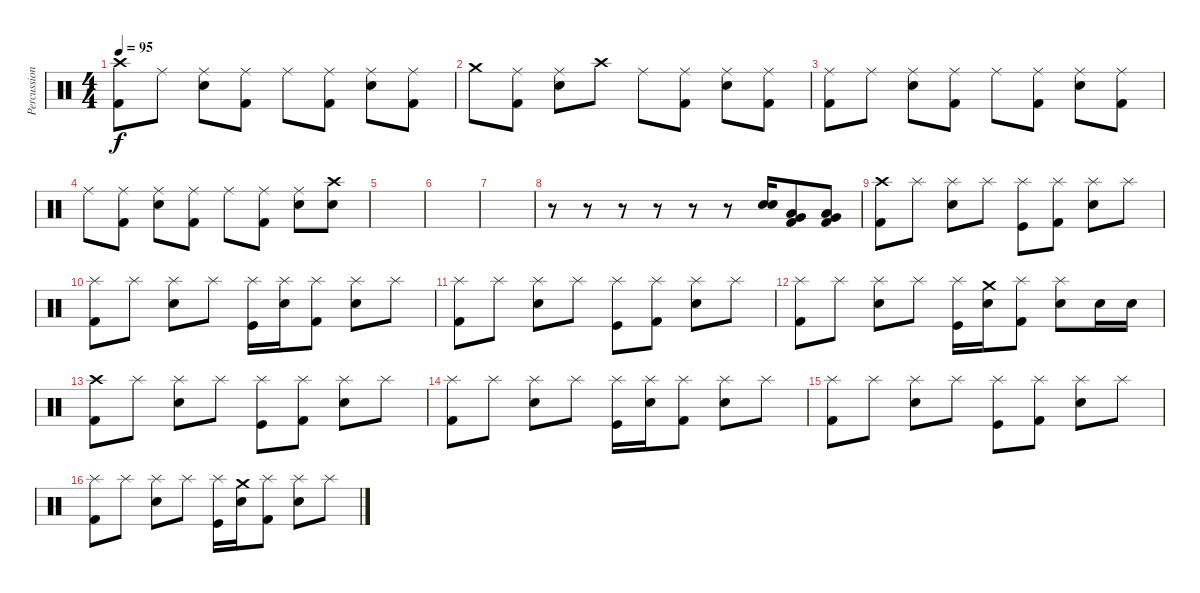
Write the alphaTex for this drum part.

\track ("Percussion" "Percussion") {instrument percussion}
\staff {score}
\articulation defaults
\ts (4 4)
\tempo 95
\clef neutral
\ks c
("Crash high (hit)" "Kick (hit) 2").8{dy f} "Ride (middle)".8 ("Ride (middle)" "Snare (hit) 2").8 ("Ride (middle)" "Kick (hit) 2").8 "Ride (middle)".8 ("Ride (middle)" "Kick (hit) 2").8 ("Ride (middle)" "Snare (hit) 2").8 ("Ride (middle)" "Kick (hit) 2").8 |
"Crash medium (hit)".8 ("Ride (middle)" "Kick (hit) 2").8 ("Ride (middle)" "Snare (hit) 2").8 "Crash high (hit)".8 "Ride (middle)".8 ("Ride (middle)" "Kick (hit) 2").8 ("Ride (middle)" "Snare (hit) 2").8 ("Ride (middle)" "Kick (hit) 2").8 |
("Ride (middle)" "Kick (hit) 2").8 "Ride (middle)".8 ("Ride (middle)" "Snare (hit) 2").8 ("Ride (middle)" "Kick (hit) 2").8 "Ride (middle)".8 ("Ride (middle)" "Kick (hit) 2").8 ("Ride (middle)" "Snare (hit) 2").8 ("Ride (middle)" "Kick (hit) 2").8 |
"Ride (middle)".8 ("Ride (middle)" "Kick (hit) 2").8 ("Ride (middle)" "Snare (hit) 2").8 ("Ride (middle)" "Kick (hit) 2").8 "Ride (middle)".8 ("Ride (middle)" "Kick (hit) 2").8 ("Ride (middle)" "Snare (hit) 2").8 ("Crash high (hit)" "Snare (hit) 2").8 |
|
|
|
r.8 r.8 r.8 r.8 r.8 r.8 ("Snare (hit) 2" "Electric Snare (hit)").16 ("Low Tom (hit)" "Very Low Tom (hit)" "Kick (hit) 2").8 ("Very Low Tom (hit)" "Low Floor Tom (hit)" "Kick (hit) 2").8 |
("Crash high (hit)" "Kick (hit) 2").8 "Splash (hit)".8 ("Splash (hit)" "Electric Snare (hit)").8 "Splash (hit)".8 ("Splash (hit)" "Kick (hit)").8 ("Splash (hit)" "Kick (hit) 2").8 ("Splash (hit)" "Electric Snare (hit)").8 "Splash (hit)".8 |
("Splash (hit)" "Kick (hit) 2").8 "Splash (hit)".8 ("Splash (hit)" "Electric Snare (hit)").8 "Splash (hit)".8 ("Splash (hit)" "Kick (hit)").16 ("Splash (hit)" "Electric Snare (hit)").16 ("Splash (hit)" "Kick (hit) 2").8 ("Splash (hit)" "Electric Snare (hit)").8 "Splash (hit)".8 |
("Splash (hit)" "Kick (hit) 2").8 "Splash (hit)".8 ("Splash (hit)" "Electric Snare (hit)").8 "Splash (hit)".8 ("Splash (hit)" "Kick (hit)").8 ("Splash (hit)" "Kick (hit) 2").8 ("Splash (hit)" "Electric Snare (hit)").8 "Splash (hit)".8 |
("Splash (hit)" "Kick (hit) 2").8 "Splash (hit)".8 ("Splash (hit)" "Electric Snare (hit)").8 "Splash (hit)".8 ("Splash (hit)" "Kick (hit)").16 ("Crash medium (hit)" "Electric Snare (hit)").16 ("Splash (hit)" "Kick (hit) 2").8 ("Splash (hit)" "Electric Snare (hit)").8 "Electric Snare (hit)".16 "Electric Snare (hit)".16 |
("Crash high (hit)" "Kick (hit) 2").8 "Splash (hit)".8 ("Splash (hit)" "Electric Snare (hit)").8 "Splash (hit)".8 ("Splash (hit)" "Kick (hit)").8 ("Splash (hit)" "Kick (hit) 2").8 ("Splash (hit)" "Electric Snare (hit)").8 "Splash (hit)".8 |
("Splash (hit)" "Kick (hit) 2").8 "Splash (hit)".8 ("Splash (hit)" "Electric Snare (hit)").8 "Splash (hit)".8 ("Splash (hit)" "Kick (hit)").16 ("Splash (hit)" "Electric Snare (hit)").16 ("Splash (hit)" "Kick (hit) 2").8 ("Splash (hit)" "Electric Snare (hit)").8 "Splash (hit)".8 |
("Splash (hit)" "Kick (hit) 2").8 "Splash (hit)".8 ("Splash (hit)" "Electric Snare (hit)").8 "Splash (hit)".8 ("Splash (hit)" "Kick (hit)").8 ("Splash (hit)" "Kick (hit) 2").8 ("Splash (hit)" "Electric Snare (hit)").8 "Splash (hit)".8 |
("Splash (hit)" "Kick (hit) 2").8 "Splash (hit)".8 ("Splash (hit)" "Electric Snare (hit)").8 "Splash (hit)".8 ("Splash (hit)" "Kick (hit)").16 ("Crash medium (hit)" "Electric Snare (hit)").16 ("Splash (hit)" "Kick (hit) 2").8 ("Splash (hit)" "Electric Snare (hit)").8 "Splash (hit)".8
